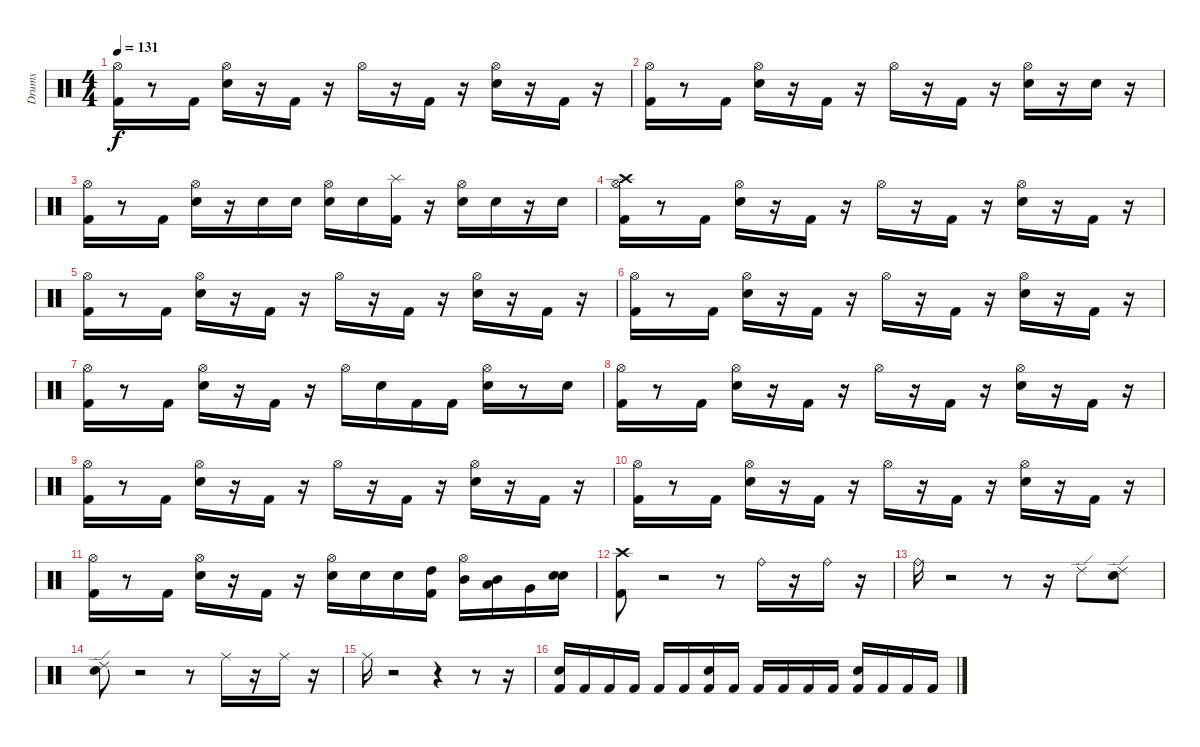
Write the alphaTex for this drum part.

\track ("Drums" "Drums") {instrument percussion}
\staff {score}
\articulation defaults
\ts (4 4)
\tempo 131
\clef neutral
\ks c
("Hi-Hat (open)" "Kick (hit) 2").16{dy f} r.8 "Kick (hit) 2".16 ("Hi-Hat (open)" "Snare (hit) 2").16 r.16 "Kick (hit) 2".16 r.16 "Hi-Hat (open)".16 r.16 "Kick (hit) 2".16 r.16 ("Hi-Hat (open)" "Snare (hit) 2").16 r.16 "Kick (hit) 2".16 r.16 |
("Hi-Hat (open)" "Kick (hit) 2").16 r.8 "Kick (hit) 2".16 ("Hi-Hat (open)" "Snare (hit) 2").16 r.16 "Kick (hit) 2".16 r.16 "Hi-Hat (open)".16 r.16 "Kick (hit) 2".16 r.16 ("Hi-Hat (open)" "Snare (hit) 2").16 r.16 "Snare (hit) 2".16 r.16 |
("Hi-Hat (open)" "Kick (hit) 2").16 r.8 "Kick (hit) 2".16 ("Hi-Hat (open)" "Snare (hit) 2").16 r.16 "Snare (hit) 2".16 "Snare (hit) 2".16 ("Hi-Hat (open)" "Snare (hit) 2").16 "Snare (hit) 2".16 ("Splash (hit)" "Kick (hit) 2").16 r.16 ("Hi-Hat (open)" "Snare (hit) 2").16 "Snare (hit) 2".16 r.16 "Snare (hit) 2".16 |
("Hi-Hat (open)" "Crash high (hit)" "Kick (hit) 2").16 r.8 "Kick (hit) 2".16 ("Hi-Hat (open)" "Snare (hit) 2").16 r.16 "Kick (hit) 2".16 r.16 "Hi-Hat (open)".16 r.16 "Kick (hit) 2".16 r.16 ("Hi-Hat (open)" "Snare (hit) 2").16 r.16 "Kick (hit) 2".16 r.16 |
("Hi-Hat (open)" "Kick (hit) 2").16 r.8 "Kick (hit) 2".16 ("Hi-Hat (open)" "Snare (hit) 2").16 r.16 "Kick (hit) 2".16 r.16 "Hi-Hat (open)".16 r.16 "Kick (hit) 2".16 r.16 ("Hi-Hat (open)" "Snare (hit) 2").16 r.16 "Kick (hit) 2".16 r.16 |
("Hi-Hat (open)" "Kick (hit) 2").16 r.8 "Kick (hit) 2".16 ("Hi-Hat (open)" "Snare (hit) 2").16 r.16 "Kick (hit) 2".16 r.16 "Hi-Hat (open)".16 r.16 "Kick (hit) 2".16 r.16 ("Hi-Hat (open)" "Snare (hit) 2").16 r.16 "Kick (hit) 2".16 r.16 |
("Hi-Hat (open)" "Kick (hit) 2").16 r.8 "Kick (hit) 2".16 ("Hi-Hat (open)" "Snare (hit) 2").16 r.16 "Kick (hit) 2".16 r.16 "Hi-Hat (open)".16 "Snare (hit) 2".16 "Kick (hit) 2".16 "Kick (hit) 2".16 ("Hi-Hat (open)" "Snare (hit) 2").16 r.8 "Snare (hit) 2".16 |
("Hi-Hat (open)" "Kick (hit) 2").16 r.8 "Kick (hit) 2".16 ("Hi-Hat (open)" "Snare (hit) 2").16 r.16 "Kick (hit) 2".16 r.16 "Hi-Hat (open)".16 r.16 "Kick (hit) 2".16 r.16 ("Hi-Hat (open)" "Snare (hit) 2").16 r.16 "Kick (hit) 2".16 r.16 |
("Hi-Hat (open)" "Kick (hit) 2").16 r.8 "Kick (hit) 2".16 ("Hi-Hat (open)" "Snare (hit) 2").16 r.16 "Kick (hit) 2".16 r.16 "Hi-Hat (open)".16 r.16 "Kick (hit) 2".16 r.16 ("Hi-Hat (open)" "Snare (hit) 2").16 r.16 "Kick (hit) 2".16 r.16 |
("Hi-Hat (open)" "Kick (hit) 2").16 r.8 "Kick (hit) 2".16 ("Hi-Hat (open)" "Snare (hit) 2").16 r.16 "Kick (hit) 2".16 r.16 "Hi-Hat (open)".16 r.16 "Kick (hit) 2".16 r.16 ("Hi-Hat (open)" "Snare (hit) 2").16 r.16 "Kick (hit) 2".16 r.16 |
("Hi-Hat (open)" "Kick (hit) 2").16 r.8 "Kick (hit) 2".16 ("Hi-Hat (open)" "Snare (hit) 2").16 r.16 "Kick (hit) 2".16 r.16 ("Hi-Hat (open)" "Snare (hit) 2").16 "Snare (hit) 2".16 "Snare (hit) 2".16 ("High Tom (hit)" "Kick (hit) 2").16 ("Hi-Hat (open)" "Mid Tom (hit)").16 ("Mid Tom (hit)" "Low Tom (hit)").16 "Very Low Tom (hit)".16 ("Snare (hit)" "Snare (hit) 2").16 |
("Crash high (hit)" "Kick (hit) 2").8 r.2 r.8 "Ride (bell)".16 r.16 "Ride (bell)".16 r.16 |
"Ride (bell)".16 r.2 r.8 r.16 "Ride (edge) 2".8 ("Snare (hit)" "Ride (edge) 2").8 |
("Snare (hit)" "Ride (edge) 2").8 r.2 r.8 "Ride (middle)".16 r.16 "Ride (middle)".16 r.16 |
"Ride (middle)".16 r.2 r.4 r.8 r.16 |
("Kick (hit) 2" "Snare (hit) 2").16 "Kick (hit) 2".16 "Kick (hit) 2".16 "Kick (hit) 2".16 "Kick (hit) 2".16 "Kick (hit) 2".16 ("Kick (hit) 2" "Snare (hit) 2").16 "Kick (hit) 2".16 "Kick (hit) 2".16 "Kick (hit) 2".16 "Kick (hit) 2".16 "Kick (hit) 2".16 ("Kick (hit) 2" "Snare (hit) 2").16 "Kick (hit) 2".16 "Kick (hit) 2".16 "Kick (hit) 2".16
